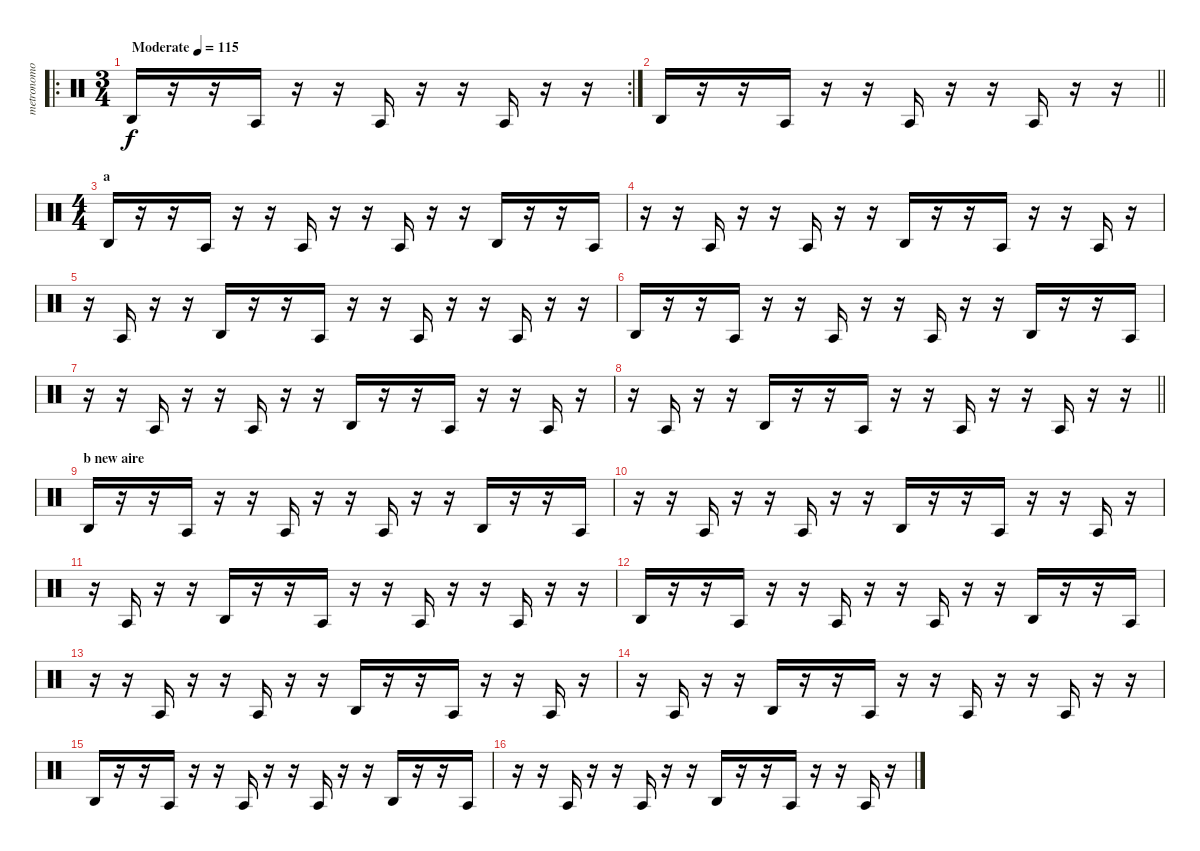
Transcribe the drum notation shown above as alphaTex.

\track ("metronomo" "metronomo") {mute instrument percussion}
\staff {score}
\articulation defaults
\ro
\rc 2
\ts (3 4)
\tempo (115 "Moderate")
\clef neutral
\ks c "Agogo high (hit)".16{dy f}
r.16 r.16 "Agogo tow (hit)".16 r.16 r.16 "Agogo tow (hit)".16 r.16 r.16 "Agogo tow (hit)".16 r.16 r.16 |
\barLineRight lightlight "Agogo high (hit)".16
r.16 r.16 "Agogo tow (hit)".16 r.16 r.16 "Agogo tow (hit)".16 r.16 r.16 "Agogo tow (hit)".16 r.16 r.16 |
\ts (4 4)
\section ("" "a")
"Agogo high (hit)".16 r.16 r.16 "Agogo tow (hit)".16 r.16 r.16 "Agogo tow (hit)".16 r.16 r.16 "Agogo tow (hit)".16 r.16 r.16 "Agogo high (hit)".16 r.16 r.16 "Agogo tow (hit)".16 |
r.16 r.16 "Agogo tow (hit)".16 r.16 r.16 "Agogo tow (hit)".16 r.16 r.16 "Agogo high (hit)".16 r.16 r.16 "Agogo tow (hit)".16 r.16 r.16 "Agogo tow (hit)".16 r.16 |
r.16 "Agogo tow (hit)".16 r.16 r.16 "Agogo high (hit)".16 r.16 r.16 "Agogo tow (hit)".16 r.16 r.16 "Agogo tow (hit)".16 r.16 r.16 "Agogo tow (hit)".16 r.16 r.16 |
"Agogo high (hit)".16 r.16 r.16 "Agogo tow (hit)".16 r.16 r.16 "Agogo tow (hit)".16 r.16 r.16 "Agogo tow (hit)".16 r.16 r.16 "Agogo high (hit)".16 r.16 r.16 "Agogo tow (hit)".16 |
r.16 r.16 "Agogo tow (hit)".16 r.16 r.16 "Agogo tow (hit)".16 r.16 r.16 "Agogo high (hit)".16 r.16 r.16 "Agogo tow (hit)".16 r.16 r.16 "Agogo tow (hit)".16 r.16 |
\barLineRight lightlight
r.16 "Agogo tow (hit)".16 r.16 r.16 "Agogo high (hit)".16 r.16 r.16 "Agogo tow (hit)".16 r.16 r.16 "Agogo tow (hit)".16 r.16 r.16 "Agogo tow (hit)".16 r.16 r.16 |
\section ("" "b new aire")
"Agogo high (hit)".16 r.16 r.16 "Agogo tow (hit)".16 r.16 r.16 "Agogo tow (hit)".16 r.16 r.16 "Agogo tow (hit)".16 r.16 r.16 "Agogo high (hit)".16 r.16 r.16 "Agogo tow (hit)".16 |
r.16 r.16 "Agogo tow (hit)".16 r.16 r.16 "Agogo tow (hit)".16 r.16 r.16 "Agogo high (hit)".16 r.16 r.16 "Agogo tow (hit)".16 r.16 r.16 "Agogo tow (hit)".16 r.16 |
r.16 "Agogo tow (hit)".16 r.16 r.16 "Agogo high (hit)".16 r.16 r.16 "Agogo tow (hit)".16 r.16 r.16 "Agogo tow (hit)".16 r.16 r.16 "Agogo tow (hit)".16 r.16 r.16 |
"Agogo high (hit)".16 r.16 r.16 "Agogo tow (hit)".16 r.16 r.16 "Agogo tow (hit)".16 r.16 r.16 "Agogo tow (hit)".16 r.16 r.16 "Agogo high (hit)".16 r.16 r.16 "Agogo tow (hit)".16 |
r.16 r.16 "Agogo tow (hit)".16 r.16 r.16 "Agogo tow (hit)".16 r.16 r.16 "Agogo high (hit)".16 r.16 r.16 "Agogo tow (hit)".16 r.16 r.16 "Agogo tow (hit)".16 r.16 |
r.16 "Agogo tow (hit)".16 r.16 r.16 "Agogo high (hit)".16 r.16 r.16 "Agogo tow (hit)".16 r.16 r.16 "Agogo tow (hit)".16 r.16 r.16 "Agogo tow (hit)".16 r.16 r.16 |
"Agogo high (hit)".16 r.16 r.16 "Agogo tow (hit)".16 r.16 r.16 "Agogo tow (hit)".16 r.16 r.16 "Agogo tow (hit)".16 r.16 r.16 "Agogo high (hit)".16 r.16 r.16 "Agogo tow (hit)".16 |
r.16 r.16 "Agogo tow (hit)".16 r.16 r.16 "Agogo tow (hit)".16 r.16 r.16 "Agogo high (hit)".16 r.16 r.16 "Agogo tow (hit)".16 r.16 r.16 "Agogo tow (hit)".16 r.16
